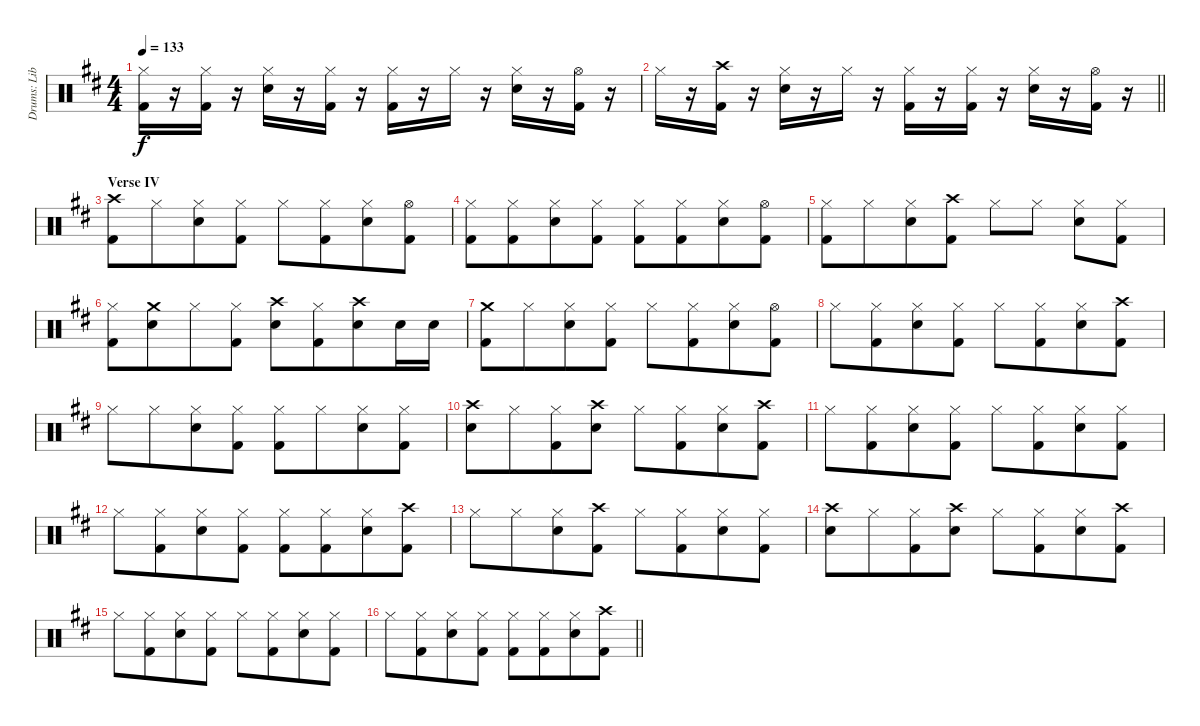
\track ("Drums: Liberty" "Drums: Lib") {instrument percussion}
\staff {score}
\articulation defaults
\ts (4 4)
\tempo 133
\clef neutral
\ks d
("Hi-Hat (closed)" "Kick (hit) 2").16{dy f} r.16 ("Kick (hit) 2" "Hi-Hat (closed)").16 r.16 ("Hi-Hat (closed)" "Electric Snare (hit)").16 r.16 ("Kick (hit) 2" "Hi-Hat (closed)").16 r.16 ("Hi-Hat (closed)" "Kick (hit) 2").16 r.16 "Hi-Hat (closed)".16 r.16 ("Electric Snare (hit)" "Hi-Hat (closed)").16 r.16 ("Hi-Hat (open)" "Kick (hit) 2").16 r.16 |
\barLineRight lightlight "Hi-Hat (closed)".16
r.16 ("Crash high (hit)" "Kick (hit) 2").16 r.16 ("Electric Snare (hit)" "Hi-Hat (closed)").16 r.16 "Hi-Hat (closed)".16 r.16 ("Kick (hit) 2" "Hi-Hat (closed)").16 r.16 ("Hi-Hat (closed)" "Kick (hit) 2").16 r.16 ("Electric Snare (hit)" "Hi-Hat (closed)").16 r.16 ("Hi-Hat (open)" "Kick (hit) 2").16 r.16 |
\section ("" "Verse IV")
("Crash high (hit)" "Kick (hit) 2").8 "Hi-Hat (closed)".8{beam merge} ("Hi-Hat (closed)" "Electric Snare (hit)").8 ("Hi-Hat (closed)" "Kick (hit) 2").8 "Hi-Hat (closed)".8 ("Hi-Hat (closed)" "Kick (hit) 2").8{beam merge} ("Hi-Hat (closed)" "Electric Snare (hit)").8 ("Hi-Hat (open)" "Kick (hit) 2").8 |
("Hi-Hat (closed)" "Kick (hit) 2").8 ("Hi-Hat (closed)" "Kick (hit) 2").8{beam merge} ("Hi-Hat (closed)" "Electric Snare (hit)").8 ("Hi-Hat (closed)" "Kick (hit) 2").8 ("Hi-Hat (closed)" "Kick (hit) 2").8 ("Hi-Hat (closed)" "Kick (hit) 2").8{beam merge} ("Hi-Hat (closed)" "Electric Snare (hit)").8 ("Hi-Hat (open)" "Kick (hit) 2").8 |
("Hi-Hat (closed)" "Kick (hit) 2").8 "Hi-Hat (closed)".8{beam merge} ("Hi-Hat (closed)" "Electric Snare (hit)").8 ("Crash high (hit)" "Kick (hit) 2").8 "Hi-Hat (closed)".8 "Hi-Hat (closed)".8 ("Hi-Hat (closed)" "Electric Snare (hit)").8 ("Hi-Hat (closed)" "Kick (hit) 2").8 |
("Hi-Hat (closed)" "Kick (hit) 2").8 ("Crash medium (hit)" "Electric Snare (hit)").8{beam merge} "Hi-Hat (closed)".8 ("Hi-Hat (closed)" "Kick (hit) 2").8 ("Crash high (hit)" "Electric Snare (hit)").8 ("Hi-Hat (closed)" "Kick (hit) 2").8{beam merge} ("Crash high (hit)" "Electric Snare (hit)").8 "Electric Snare (hit)".16 "Electric Snare (hit)".16 |
("Crash medium (hit)" "Kick (hit) 2").8 "Hi-Hat (closed)".8{beam merge} ("Hi-Hat (closed)" "Electric Snare (hit)").8 ("Hi-Hat (closed)" "Kick (hit) 2").8 "Hi-Hat (closed)".8 ("Hi-Hat (closed)" "Kick (hit) 2").8{beam merge} ("Hi-Hat (closed)" "Electric Snare (hit)").8 ("Hi-Hat (open)" "Kick (hit) 2").8 |
"Hi-Hat (closed)".8 ("Hi-Hat (closed)" "Kick (hit) 2").8{beam merge} ("Hi-Hat (closed)" "Electric Snare (hit)").8 ("Hi-Hat (closed)" "Kick (hit) 2").8 "Hi-Hat (closed)".8 ("Hi-Hat (closed)" "Kick (hit) 2").8{beam merge} ("Hi-Hat (closed)" "Electric Snare (hit)").8 ("Crash high (hit)" "Kick (hit) 2").8 |
"Hi-Hat (closed)".8 "Hi-Hat (closed)".8{beam merge} ("Hi-Hat (closed)" "Electric Snare (hit)").8 ("Hi-Hat (closed)" "Kick (hit) 2").8 ("Hi-Hat (closed)" "Kick (hit) 2").8 "Hi-Hat (closed)".8{beam merge} ("Hi-Hat (closed)" "Electric Snare (hit)").8 ("Hi-Hat (closed)" "Kick (hit) 2").8 |
("Crash high (hit)" "Electric Snare (hit)").8 "Hi-Hat (closed)".8{beam merge} ("Hi-Hat (closed)" "Kick (hit) 2").8 ("Crash high (hit)" "Electric Snare (hit)").8 "Hi-Hat (closed)".8 ("Hi-Hat (closed)" "Kick (hit) 2").8{beam merge} ("Hi-Hat (closed)" "Electric Snare (hit)").8 ("Crash high (hit)" "Kick (hit) 2").8 |
"Hi-Hat (closed)".8 ("Hi-Hat (closed)" "Kick (hit) 2").8{beam merge} ("Hi-Hat (closed)" "Electric Snare (hit)").8 ("Hi-Hat (closed)" "Kick (hit) 2").8 "Hi-Hat (closed)".8 ("Hi-Hat (closed)" "Kick (hit) 2").8{beam merge} ("Hi-Hat (closed)" "Electric Snare (hit)").8 ("Hi-Hat (closed)" "Kick (hit) 2").8 |
"Hi-Hat (closed)".8 ("Hi-Hat (closed)" "Kick (hit) 2").8{beam merge} ("Hi-Hat (closed)" "Electric Snare (hit)").8 ("Hi-Hat (closed)" "Kick (hit) 2").8 ("Hi-Hat (closed)" "Kick (hit) 2").8 ("Hi-Hat (closed)" "Kick (hit) 2").8{beam merge} ("Hi-Hat (closed)" "Electric Snare (hit)").8 ("Crash high (hit)" "Kick (hit) 2").8 |
"Hi-Hat (closed)".8 "Hi-Hat (closed)".8{beam merge} ("Hi-Hat (closed)" "Electric Snare (hit)").8 ("Crash high (hit)" "Kick (hit) 2").8 "Hi-Hat (closed)".8 ("Hi-Hat (closed)" "Kick (hit) 2").8{beam merge} ("Hi-Hat (closed)" "Electric Snare (hit)").8 ("Hi-Hat (closed)" "Kick (hit) 2").8 |
("Crash high (hit)" "Electric Snare (hit)").8 "Hi-Hat (closed)".8{beam merge} ("Hi-Hat (closed)" "Kick (hit) 2").8 ("Crash high (hit)" "Electric Snare (hit)").8 "Hi-Hat (closed)".8 ("Hi-Hat (closed)" "Kick (hit) 2").8{beam merge} ("Hi-Hat (closed)" "Electric Snare (hit)").8 ("Crash high (hit)" "Kick (hit) 2").8 |
"Hi-Hat (closed)".8 ("Hi-Hat (closed)" "Kick (hit) 2").8{beam merge} ("Hi-Hat (closed)" "Electric Snare (hit)").8 ("Hi-Hat (closed)" "Kick (hit) 2").8 "Hi-Hat (closed)".8 ("Hi-Hat (closed)" "Kick (hit) 2").8{beam merge} ("Hi-Hat (closed)" "Electric Snare (hit)").8 ("Hi-Hat (closed)" "Kick (hit) 2").8 |
\barLineRight lightlight "Hi-Hat (closed)".8
("Hi-Hat (closed)" "Kick (hit) 2").8{beam merge} ("Hi-Hat (closed)" "Electric Snare (hit)").8 ("Hi-Hat (closed)" "Kick (hit) 2").8 ("Hi-Hat (closed)" "Kick (hit) 2").8 ("Hi-Hat (closed)" "Kick (hit) 2").8{beam merge} ("Hi-Hat (closed)" "Electric Snare (hit)").8 ("Crash high (hit)" "Kick (hit) 2").8
